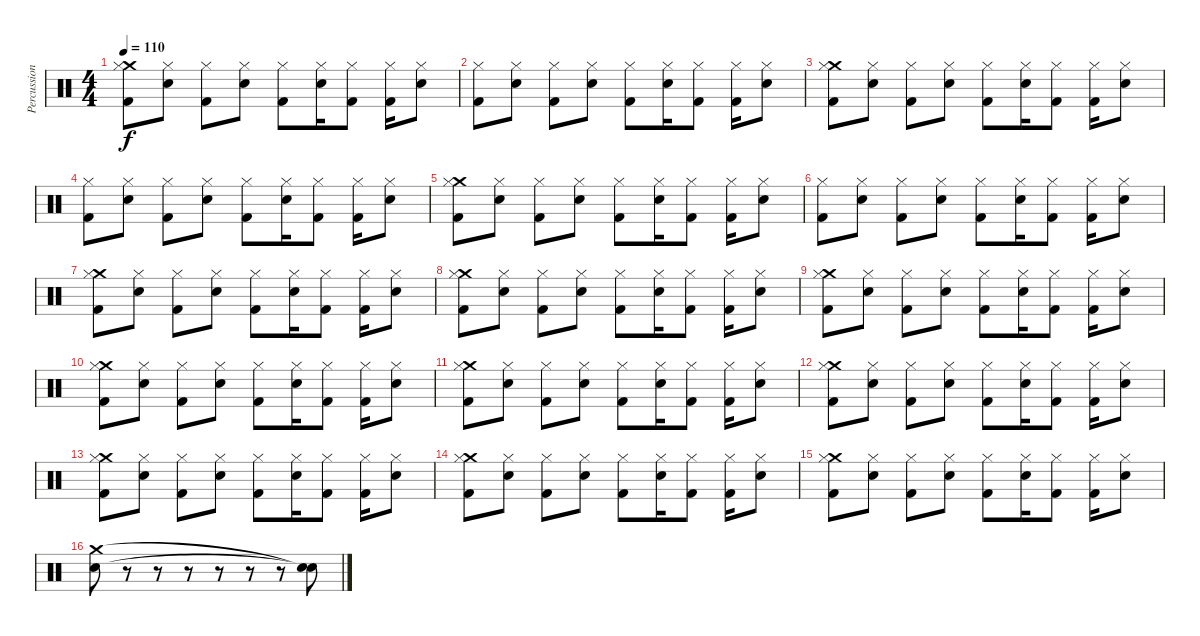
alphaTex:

\track ("Percussion" "Percussion") {instrument percussion}
\staff {score}
\articulation defaults
\ts (4 4)
\tempo 110
\clef neutral
\ks c
("Crash medium (hit)" "Hi-Hat (closed)" "Kick (hit) 2").8{dy f} ("Hi-Hat (closed)" "Electric Snare (hit)").8 ("Hi-Hat (closed)" "Kick (hit) 2").8 ("Hi-Hat (closed)" "Electric Snare (hit)").8 ("Hi-Hat (closed)" "Kick (hit) 2").8 ("Hi-Hat (closed)" "Electric Snare (hit)").16 ("Hi-Hat (closed)" "Kick (hit) 2").8 ("Hi-Hat (closed)" "Kick (hit) 2").16 ("Hi-Hat (closed)" "Electric Snare (hit)").8 |
("Hi-Hat (closed)" "Kick (hit) 2").8 ("Hi-Hat (closed)" "Electric Snare (hit)").8 ("Hi-Hat (closed)" "Kick (hit) 2").8 ("Hi-Hat (closed)" "Electric Snare (hit)").8 ("Hi-Hat (closed)" "Kick (hit) 2").8 ("Hi-Hat (closed)" "Electric Snare (hit)").16 ("Hi-Hat (closed)" "Kick (hit) 2").8 ("Hi-Hat (closed)" "Kick (hit) 2").16 ("Hi-Hat (closed)" "Electric Snare (hit)").8 |
("Crash medium (hit)" "Hi-Hat (closed)" "Kick (hit) 2").8 ("Hi-Hat (closed)" "Electric Snare (hit)").8 ("Hi-Hat (closed)" "Kick (hit) 2").8 ("Hi-Hat (closed)" "Electric Snare (hit)").8 ("Hi-Hat (closed)" "Kick (hit) 2").8 ("Hi-Hat (closed)" "Electric Snare (hit)").16 ("Hi-Hat (closed)" "Kick (hit) 2").8 ("Hi-Hat (closed)" "Kick (hit) 2").16 ("Hi-Hat (closed)" "Electric Snare (hit)").8 |
("Hi-Hat (closed)" "Kick (hit) 2").8 ("Hi-Hat (closed)" "Electric Snare (hit)").8 ("Hi-Hat (closed)" "Kick (hit) 2").8 ("Hi-Hat (closed)" "Electric Snare (hit)").8 ("Hi-Hat (closed)" "Kick (hit) 2").8 ("Hi-Hat (closed)" "Electric Snare (hit)").16 ("Hi-Hat (closed)" "Kick (hit) 2").8 ("Hi-Hat (closed)" "Kick (hit) 2").16 ("Hi-Hat (closed)" "Electric Snare (hit)").8 |
("Crash medium (hit)" "Hi-Hat (closed)" "Kick (hit) 2").8 ("Hi-Hat (closed)" "Electric Snare (hit)").8 ("Hi-Hat (closed)" "Kick (hit) 2").8 ("Hi-Hat (closed)" "Electric Snare (hit)").8 ("Hi-Hat (closed)" "Kick (hit) 2").8 ("Hi-Hat (closed)" "Electric Snare (hit)").16 ("Hi-Hat (closed)" "Kick (hit) 2").8 ("Hi-Hat (closed)" "Kick (hit) 2").16 ("Hi-Hat (closed)" "Electric Snare (hit)").8 |
("Hi-Hat (closed)" "Kick (hit) 2").8 ("Hi-Hat (closed)" "Electric Snare (hit)").8 ("Hi-Hat (closed)" "Kick (hit) 2").8 ("Hi-Hat (closed)" "Electric Snare (hit)").8 ("Hi-Hat (closed)" "Kick (hit) 2").8 ("Hi-Hat (closed)" "Electric Snare (hit)").16 ("Hi-Hat (closed)" "Kick (hit) 2").8 ("Hi-Hat (closed)" "Kick (hit) 2").16 ("Hi-Hat (closed)" "Electric Snare (hit)").8 |
("Crash medium (hit)" "Hi-Hat (closed)" "Kick (hit) 2").8 ("Hi-Hat (closed)" "Electric Snare (hit)").8 ("Hi-Hat (closed)" "Kick (hit) 2").8 ("Hi-Hat (closed)" "Electric Snare (hit)").8 ("Hi-Hat (closed)" "Kick (hit) 2").8 ("Hi-Hat (closed)" "Electric Snare (hit)").16 ("Hi-Hat (closed)" "Kick (hit) 2").8 ("Hi-Hat (closed)" "Kick (hit) 2").16 ("Hi-Hat (closed)" "Electric Snare (hit)").8 |
("Crash medium (hit)" "Hi-Hat (closed)" "Kick (hit) 2").8 ("Hi-Hat (closed)" "Electric Snare (hit)").8 ("Hi-Hat (closed)" "Kick (hit) 2").8 ("Hi-Hat (closed)" "Electric Snare (hit)").8 ("Hi-Hat (closed)" "Kick (hit) 2").8 ("Hi-Hat (closed)" "Electric Snare (hit)").16 ("Hi-Hat (closed)" "Kick (hit) 2").8 ("Hi-Hat (closed)" "Kick (hit) 2").16 ("Hi-Hat (closed)" "Electric Snare (hit)").8 |
("Crash medium (hit)" "Hi-Hat (closed)" "Kick (hit) 2").8 ("Hi-Hat (closed)" "Electric Snare (hit)").8 ("Hi-Hat (closed)" "Kick (hit) 2").8 ("Hi-Hat (closed)" "Electric Snare (hit)").8 ("Hi-Hat (closed)" "Kick (hit) 2").8 ("Hi-Hat (closed)" "Electric Snare (hit)").16 ("Hi-Hat (closed)" "Kick (hit) 2").8 ("Hi-Hat (closed)" "Kick (hit) 2").16 ("Hi-Hat (closed)" "Electric Snare (hit)").8 |
("Crash medium (hit)" "Hi-Hat (closed)" "Kick (hit) 2").8 ("Hi-Hat (closed)" "Electric Snare (hit)").8 ("Hi-Hat (closed)" "Kick (hit) 2").8 ("Hi-Hat (closed)" "Electric Snare (hit)").8 ("Hi-Hat (closed)" "Kick (hit) 2").8 ("Hi-Hat (closed)" "Electric Snare (hit)").16 ("Hi-Hat (closed)" "Kick (hit) 2").8 ("Hi-Hat (closed)" "Kick (hit) 2").16 ("Hi-Hat (closed)" "Electric Snare (hit)").8 |
("Crash medium (hit)" "Hi-Hat (closed)" "Kick (hit) 2").8 ("Hi-Hat (closed)" "Electric Snare (hit)").8 ("Hi-Hat (closed)" "Kick (hit) 2").8 ("Hi-Hat (closed)" "Electric Snare (hit)").8 ("Hi-Hat (closed)" "Kick (hit) 2").8 ("Hi-Hat (closed)" "Electric Snare (hit)").16 ("Hi-Hat (closed)" "Kick (hit) 2").8 ("Hi-Hat (closed)" "Kick (hit) 2").16 ("Hi-Hat (closed)" "Electric Snare (hit)").8 |
("Crash medium (hit)" "Hi-Hat (closed)" "Kick (hit) 2").8 ("Hi-Hat (closed)" "Electric Snare (hit)").8 ("Hi-Hat (closed)" "Kick (hit) 2").8 ("Hi-Hat (closed)" "Electric Snare (hit)").8 ("Hi-Hat (closed)" "Kick (hit) 2").8 ("Hi-Hat (closed)" "Electric Snare (hit)").16 ("Hi-Hat (closed)" "Kick (hit) 2").8 ("Hi-Hat (closed)" "Kick (hit) 2").16 ("Hi-Hat (closed)" "Electric Snare (hit)").8 |
("Crash medium (hit)" "Hi-Hat (closed)" "Kick (hit) 2").8 ("Hi-Hat (closed)" "Electric Snare (hit)").8 ("Hi-Hat (closed)" "Kick (hit) 2").8 ("Hi-Hat (closed)" "Electric Snare (hit)").8 ("Hi-Hat (closed)" "Kick (hit) 2").8 ("Hi-Hat (closed)" "Electric Snare (hit)").16 ("Hi-Hat (closed)" "Kick (hit) 2").8 ("Hi-Hat (closed)" "Kick (hit) 2").16 ("Hi-Hat (closed)" "Electric Snare (hit)").8 |
("Crash medium (hit)" "Hi-Hat (closed)" "Kick (hit) 2").8 ("Hi-Hat (closed)" "Electric Snare (hit)").8 ("Hi-Hat (closed)" "Kick (hit) 2").8 ("Hi-Hat (closed)" "Electric Snare (hit)").8 ("Hi-Hat (closed)" "Kick (hit) 2").8 ("Hi-Hat (closed)" "Electric Snare (hit)").16 ("Hi-Hat (closed)" "Kick (hit) 2").8 ("Hi-Hat (closed)" "Kick (hit) 2").16 ("Hi-Hat (closed)" "Electric Snare (hit)").8 |
("Crash medium (hit)" "Hi-Hat (closed)" "Kick (hit) 2").8 ("Hi-Hat (closed)" "Electric Snare (hit)").8 ("Hi-Hat (closed)" "Kick (hit) 2").8 ("Hi-Hat (closed)" "Electric Snare (hit)").8 ("Hi-Hat (closed)" "Kick (hit) 2").8 ("Hi-Hat (closed)" "Electric Snare (hit)").16 ("Hi-Hat (closed)" "Kick (hit) 2").8 ("Hi-Hat (closed)" "Kick (hit) 2").16 ("Hi-Hat (closed)" "Electric Snare (hit)").8 |
("Crash medium (hit)" "Electric Snare (hit)").8 r.8 r.8 r.8 r.8 r.8 r.8 ("Snare (hit)"{t} "Snare (hit)"{t}).8
